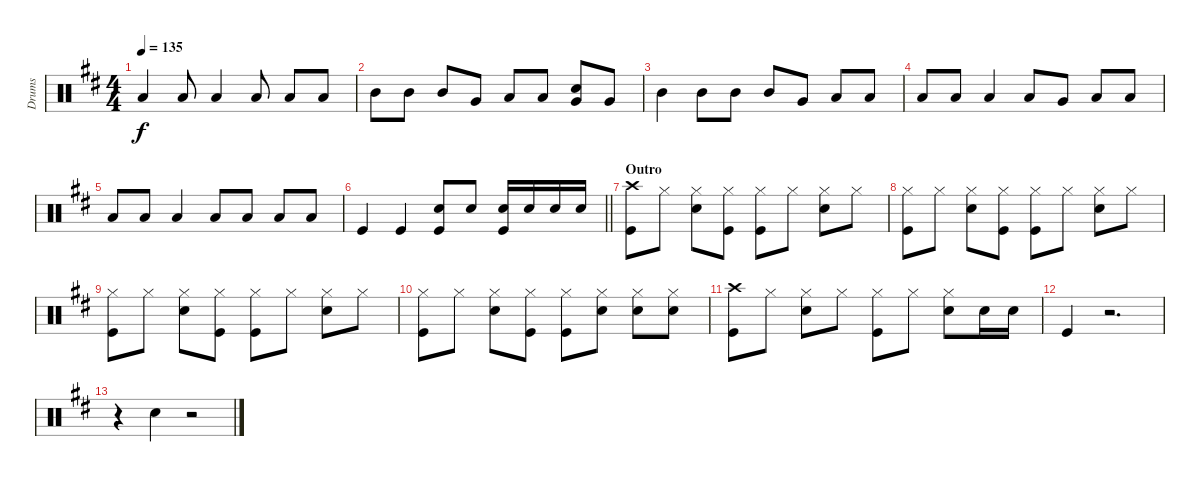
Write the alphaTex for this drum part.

\track ("Drums" "Drums") {instrument percussion}
\staff {score}
\articulation defaults
\ts (4 4)
\tempo 135
\clef neutral
\ks d "Low Tom (hit)".4{dy f} "Low Tom (hit)".8 "Low Tom (hit)".4 "Low Tom (hit)".8 "Low Tom (hit)".8 "Low Tom (hit)".8
|
"Mid Tom (hit)".8 "Mid Tom (hit)".8 "Mid Tom (hit)".8 "Very Low Tom (hit)".8 "Low Floor Tom (hit)".8 "Low Floor Tom (hit)".8 ("Very Low Tom (hit)" "Snare (hit) 2").8 "Very Low Tom (hit)".8 |
"Mid Tom (hit)".4 "Mid Tom (hit)".8 "Mid Tom (hit)".8 "Mid Tom (hit)".8 "Very Low Tom (hit)".8 "Low Floor Tom (hit)".8 "Low Floor Tom (hit)".8 |
"Low Tom (hit)".8 "Low Tom (hit)".8 "Low Tom (hit)".4 "Low Tom (hit)".8 "Very Low Tom (hit)".8 "Low Floor Tom (hit)".8 "Low Floor Tom (hit)".8 |
"Low Tom (hit)".8 "Low Tom (hit)".8 "Low Tom (hit)".4 "Low Tom (hit)".8 "Low Tom (hit)".8 "Low Tom (hit)".8 "Low Tom (hit)".8 |
\barLineRight lightlight "Kick (hit)".4 "Kick (hit)".4
("Snare (hit) 2" "Kick (hit)").8 "Snare (hit) 2".8 ("Snare (hit) 2" "Kick (hit)").16 "Snare (hit) 2".16 "Snare (hit) 2".16 "Snare (hit) 2".16 |
\section ("" "Outro")
("Crash high (hit)" "Kick (hit)").8 "Hi-Hat (closed)".8 ("Hi-Hat (closed)" "Snare (hit) 2").8 ("Hi-Hat (closed)" "Kick (hit)").8 ("Hi-Hat (closed)" "Kick (hit)").8 "Hi-Hat (closed)".8 ("Hi-Hat (closed)" "Snare (hit) 2").8 "Hi-Hat (closed)".8 |
("Hi-Hat (closed)" "Kick (hit)").8 "Hi-Hat (closed)".8 ("Hi-Hat (closed)" "Snare (hit) 2").8 ("Hi-Hat (closed)" "Kick (hit)").8 ("Hi-Hat (closed)" "Kick (hit)").8 "Hi-Hat (closed)".8 ("Hi-Hat (closed)" "Snare (hit) 2").8 "Hi-Hat (closed)".8 |
("Hi-Hat (closed)" "Kick (hit)").8 "Hi-Hat (closed)".8 ("Hi-Hat (closed)" "Snare (hit) 2").8 ("Hi-Hat (closed)" "Kick (hit)").8 ("Hi-Hat (closed)" "Kick (hit)").8 "Hi-Hat (closed)".8 ("Hi-Hat (closed)" "Snare (hit) 2").8 "Hi-Hat (closed)".8 |
("Hi-Hat (closed)" "Kick (hit)").8 "Hi-Hat (closed)".8 ("Hi-Hat (closed)" "Snare (hit) 2").8 ("Hi-Hat (closed)" "Kick (hit)").8 ("Hi-Hat (closed)" "Kick (hit)").8 ("Hi-Hat (closed)" "Snare (hit) 2").8 ("Hi-Hat (closed)" "Snare (hit) 2").8 ("Hi-Hat (closed)" "Snare (hit) 2").8 |
("Crash high (hit)" "Kick (hit)").8 "Hi-Hat (closed)".8 ("Hi-Hat (closed)" "Snare (hit) 2").8 "Hi-Hat (closed)".8 ("Hi-Hat (closed)" "Kick (hit)").8 "Hi-Hat (closed)".8 ("Hi-Hat (closed)" "Snare (hit) 2").8 "Snare (hit) 2".16 "Snare (hit) 2".16 |
"Kick (hit)".4 r.2{d} |
r.4 "Snare (hit) 2".4 r.2
